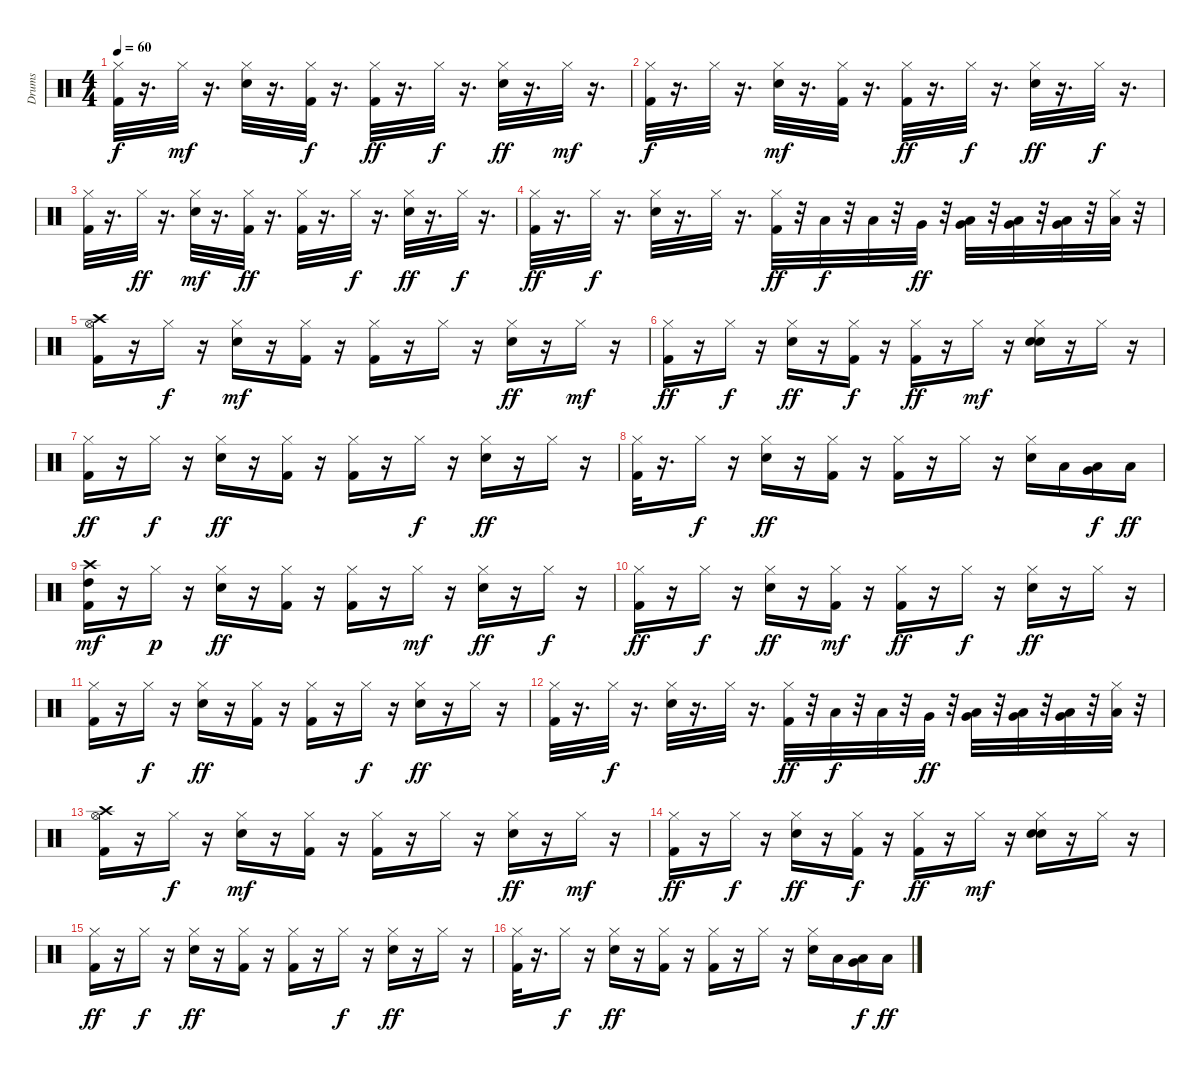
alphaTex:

\track ("Drums" "Drums") {instrument percussion}
\staff {score}
\articulation defaults
\ts (4 4)
\tempo 60
\clef neutral
\ks c
("Kick (hit) 2" "Hi-Hat (closed)").32{dy f} r.16{d} "Hi-Hat (closed)".32{dy mf} r.16{d} ("Hi-Hat (closed)" "Electric Snare (hit)").32 r.16{d} ("Kick (hit) 2" "Hi-Hat (closed)").32{dy f} r.16{d} ("Hi-Hat (closed)" "Kick (hit) 2").32{dy ff} r.16{d} "Hi-Hat (closed)".32{dy f} r.16{d} ("Electric Snare (hit)" "Hi-Hat (closed)").32{dy ff} r.16{d} "Hi-Hat (closed)".32{dy mf} r.16{d} |
("Hi-Hat (closed)" "Kick (hit) 2").32{dy f} r.16{d} "Hi-Hat (closed)".32 r.16{d} ("Electric Snare (hit)" "Hi-Hat (closed)").32{dy mf} r.16{d} ("Kick (hit) 2" "Hi-Hat (closed)").32 r.16{d} ("Kick (hit) 2" "Hi-Hat (closed)").32{dy ff} r.16{d} "Hi-Hat (closed)".32{dy f} r.16{d} ("Electric Snare (hit)" "Hi-Hat (closed)").32{dy ff} r.16{d} "Hi-Hat (closed)".32{dy f} r.16{d} |
("Hi-Hat (closed)" "Kick (hit) 2").32 r.16{d} "Hi-Hat (closed)".32{dy ff} r.16{d} ("Hi-Hat (closed)" "Electric Snare (hit)").32{dy mf} r.16{d} ("Kick (hit) 2" "Hi-Hat (closed)").32{dy ff} r.16{d} ("Kick (hit) 2" "Hi-Hat (closed)").32 r.16{d} "Hi-Hat (closed)".32{dy f} r.16{d} ("Hi-Hat (closed)" "Electric Snare (hit)").32{dy ff} r.16{d} "Hi-Hat (closed)".32{dy f} r.16{d} |
("Kick (hit) 2" "Hi-Hat (closed)").32{dy ff} r.16{d} "Hi-Hat (closed)".32{dy f} r.16{d} ("Electric Snare (hit)" "Hi-Hat (closed)").32 r.16{d} "Hi-Hat (closed)".32 r.16{d} ("Hi-Hat (closed)" "Kick (hit) 2").32{dy ff} r.32 "Low Tom (hit)".32{dy f} r.32 "Low Tom (hit)".32 r.32 "Very Low Tom (hit)".32{dy ff} r.32 ("Low Floor Tom (hit)" "Very Low Tom (hit)").32 r.32 ("Low Floor Tom (hit)" "Very Low Tom (hit)").32 r.32 ("Low Floor Tom (hit)" "Very Low Tom (hit)").32 r.32 ("Hi-Hat (closed)" "Low Floor Tom (hit)").32 r.32 |
("Kick (hit) 2" "Hi-Hat (open)" "Crash high (hit)").16 r.16 "Hi-Hat (closed)".16{dy f} r.16 ("Hi-Hat (closed)" "Snare (hit) 2").16{dy mf} r.16 ("Hi-Hat (closed)" "Kick (hit) 2").16 r.16 ("Hi-Hat (closed)" "Kick (hit) 2").16 r.16 "Hi-Hat (closed)".16 r.16 ("Hi-Hat (closed)" "Snare (hit) 2").16{dy ff} r.16 "Hi-Hat (closed)".16{dy mf} r.16 |
("Hi-Hat (closed)" "Kick (hit) 2").16{dy ff} r.16 "Hi-Hat (closed)".16{dy f} r.16 ("Hi-Hat (closed)" "Snare (hit) 2").16{dy ff} r.16 ("Kick (hit) 2" "Hi-Hat (closed)").16{dy f} r.16 ("Kick (hit) 2" "Hi-Hat (closed)").16{dy ff} r.16 "Hi-Hat (closed)".16{dy mf} r.16 ("Hi-Hat (closed)" "Snare (hit) 2" "Electric Snare (hit)").16 r.16 "Hi-Hat (closed)".16 r.16 |
("Hi-Hat (closed)" "Kick (hit) 2").16{dy ff} r.16 "Hi-Hat (closed)".16{dy f} r.16 ("Hi-Hat (closed)" "Snare (hit) 2").16{dy ff} r.16 ("Hi-Hat (closed)" "Kick (hit) 2").16 r.16 ("Hi-Hat (closed)" "Kick (hit) 2").16 r.16 "Hi-Hat (closed)".16{dy f} r.16 ("Hi-Hat (closed)" "Snare (hit) 2").16{dy ff} r.16 "Hi-Hat (closed)".16 r.16 |
("Kick (hit) 2" "Hi-Hat (closed)").32 r.16{d} "Hi-Hat (closed)".16{dy f} r.16 ("Hi-Hat (closed)" "Snare (hit) 2").16{dy ff} r.16 ("Hi-Hat (closed)" "Kick (hit) 2").16 r.16 ("Hi-Hat (closed)" "Kick (hit) 2").16 r.16 "Hi-Hat (closed)".16 r.16 ("Hi-Hat (closed)" "Snare (hit) 2").16 "Low Tom (hit)".16 ("Low Tom (hit)" "Very Low Tom (hit)").16{dy f} "Low Floor Tom (hit)".16{dy ff} |
("Crash high (hit)" "Kick (hit) 2" "High Tom (hit)").16{dy mf} r.16 "Hi-Hat (closed)".16{dy p} r.16 ("Snare (hit) 2" "Hi-Hat (closed)").16{dy ff} r.16 ("Hi-Hat (closed)" "Kick (hit) 2").16 r.16 ("Hi-Hat (closed)" "Kick (hit) 2").16 r.16 "Hi-Hat (closed)".16{dy mf} r.16 ("Hi-Hat (closed)" "Snare (hit) 2").16{dy ff} r.16 "Hi-Hat (closed)".16{dy f} r.16 |
("Hi-Hat (closed)" "Kick (hit) 2").16{dy ff} r.16 "Hi-Hat (closed)".16{dy f} r.16 ("Hi-Hat (closed)" "Snare (hit) 2").16{dy ff} r.16 ("Hi-Hat (closed)" "Kick (hit) 2").16{dy mf} r.16 ("Hi-Hat (closed)" "Kick (hit) 2").16{dy ff} r.16 "Hi-Hat (closed)".16{dy f} r.16 ("Hi-Hat (closed)" "Snare (hit) 2").16{dy ff} r.16 "Hi-Hat (closed)".16 r.16 |
("Hi-Hat (closed)" "Kick (hit) 2").16 r.16 "Hi-Hat (closed)".16{dy f} r.16 ("Snare (hit) 2" "Hi-Hat (closed)").16{dy ff} r.16 ("Hi-Hat (closed)" "Kick (hit) 2").16 r.16 ("Kick (hit) 2" "Hi-Hat (closed)").16 r.16 "Hi-Hat (closed)".16{dy f} r.16 ("Hi-Hat (closed)" "Snare (hit) 2").16{dy ff} r.16 "Hi-Hat (closed)".16 r.16 |
("Kick (hit) 2" "Hi-Hat (closed)").32 r.16{d} "Hi-Hat (closed)".32{dy f} r.16{d} ("Snare (hit) 2" "Hi-Hat (closed)").32 r.16{d} "Hi-Hat (closed)".32 r.16{d} ("Hi-Hat (closed)" "Kick (hit) 2").32{dy ff} r.32 "Low Tom (hit)".32{dy f} r.32 "Low Tom (hit)".32 r.32 "Very Low Tom (hit)".32{dy ff} r.32 ("Low Floor Tom (hit)" "Very Low Tom (hit)").32 r.32 ("Low Floor Tom (hit)" "Very Low Tom (hit)").32 r.32 ("Low Floor Tom (hit)" "Very Low Tom (hit)").32 r.32 ("Hi-Hat (closed)" "Low Floor Tom (hit)").32 r.32 |
("Kick (hit) 2" "Hi-Hat (open)" "Crash high (hit)").16 r.16 "Hi-Hat (closed)".16{dy f} r.16 ("Hi-Hat (closed)" "Snare (hit) 2").16{dy mf} r.16 ("Hi-Hat (closed)" "Kick (hit) 2").16 r.16 ("Hi-Hat (closed)" "Kick (hit) 2").16 r.16 "Hi-Hat (closed)".16 r.16 ("Hi-Hat (closed)" "Snare (hit) 2").16{dy ff} r.16 "Hi-Hat (closed)".16{dy mf} r.16 |
("Hi-Hat (closed)" "Kick (hit) 2").16{dy ff} r.16 "Hi-Hat (closed)".16{dy f} r.16 ("Hi-Hat (closed)" "Snare (hit) 2").16{dy ff} r.16 ("Kick (hit) 2" "Hi-Hat (closed)").16{dy f} r.16 ("Kick (hit) 2" "Hi-Hat (closed)").16{dy ff} r.16 "Hi-Hat (closed)".16{dy mf} r.16 ("Hi-Hat (closed)" "Snare (hit) 2" "Electric Snare (hit)").16 r.16 "Hi-Hat (closed)".16 r.16 |
("Hi-Hat (closed)" "Kick (hit) 2").16{dy ff} r.16 "Hi-Hat (closed)".16{dy f} r.16 ("Hi-Hat (closed)" "Snare (hit) 2").16{dy ff} r.16 ("Hi-Hat (closed)" "Kick (hit) 2").16 r.16 ("Hi-Hat (closed)" "Kick (hit) 2").16 r.16 "Hi-Hat (closed)".16{dy f} r.16 ("Hi-Hat (closed)" "Snare (hit) 2").16{dy ff} r.16 "Hi-Hat (closed)".16 r.16 |
("Kick (hit) 2" "Hi-Hat (closed)").32 r.16{d} "Hi-Hat (closed)".16{dy f} r.16 ("Hi-Hat (closed)" "Snare (hit) 2").16{dy ff} r.16 ("Hi-Hat (closed)" "Kick (hit) 2").16 r.16 ("Hi-Hat (closed)" "Kick (hit) 2").16 r.16 "Hi-Hat (closed)".16 r.16 ("Hi-Hat (closed)" "Snare (hit) 2").16 "Low Tom (hit)".16 ("Low Tom (hit)" "Very Low Tom (hit)").16{dy f} "Low Floor Tom (hit)".16{dy ff}
